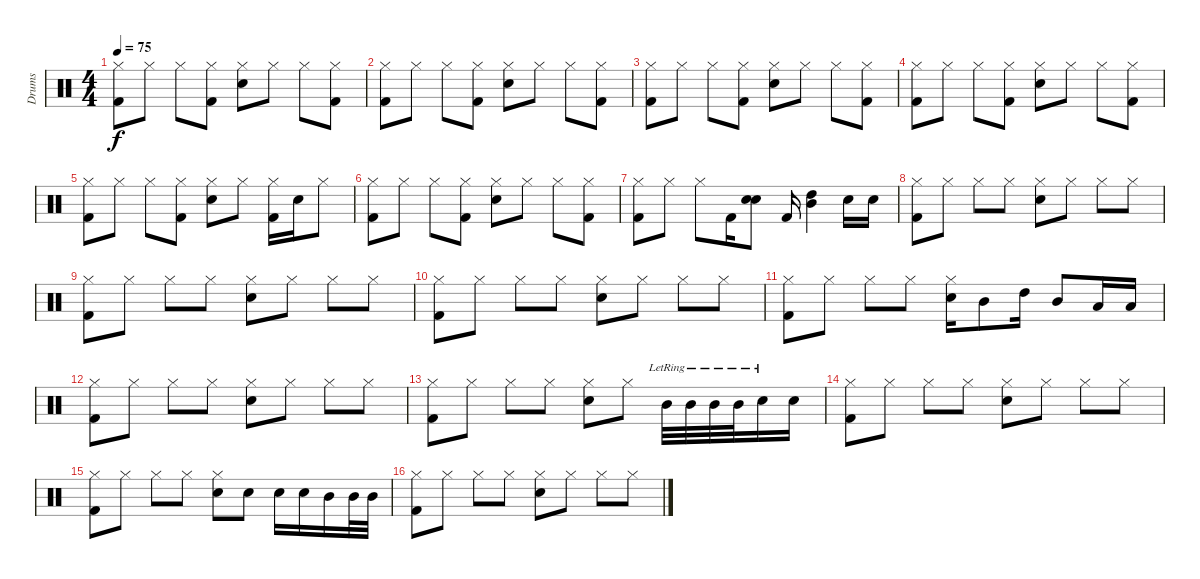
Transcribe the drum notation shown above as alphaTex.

\track ("Drums" "Drums") {instrument percussion}
\staff {score}
\articulation defaults
\ts (4 4)
\tempo 75
\clef neutral
\ks c
("Kick (hit) 2" "Hi-Hat (closed)").8{dy f} "Hi-Hat (closed)".8 "Hi-Hat (closed)".8 ("Kick (hit) 2" "Hi-Hat (closed)").8 ("Snare (hit) 2" "Hi-Hat (closed)").8 "Hi-Hat (closed)".8 "Hi-Hat (closed)".8 ("Kick (hit) 2" "Hi-Hat (closed)").8 |
("Kick (hit) 2" "Hi-Hat (closed)").8 "Hi-Hat (closed)".8 "Hi-Hat (closed)".8 ("Kick (hit) 2" "Hi-Hat (closed)").8 ("Snare (hit) 2" "Hi-Hat (closed)").8 "Hi-Hat (closed)".8 "Hi-Hat (closed)".8 ("Kick (hit) 2" "Hi-Hat (closed)").8 |
("Kick (hit) 2" "Hi-Hat (closed)").8 "Hi-Hat (closed)".8 "Hi-Hat (closed)".8 ("Kick (hit) 2" "Hi-Hat (closed)").8 ("Snare (hit) 2" "Hi-Hat (closed)").8 "Hi-Hat (closed)".8 "Hi-Hat (closed)".8 ("Kick (hit) 2" "Hi-Hat (closed)").8 |
("Kick (hit) 2" "Hi-Hat (closed)").8 "Hi-Hat (closed)".8 "Hi-Hat (closed)".8 ("Kick (hit) 2" "Hi-Hat (closed)").8 ("Snare (hit) 2" "Hi-Hat (closed)").8 "Hi-Hat (closed)".8 "Hi-Hat (closed)".8 ("Kick (hit) 2" "Hi-Hat (closed)").8 |
("Kick (hit) 2" "Hi-Hat (closed)").8 "Hi-Hat (closed)".8 "Hi-Hat (closed)".8 ("Kick (hit) 2" "Hi-Hat (closed)").8 ("Snare (hit) 2" "Hi-Hat (closed)").8 "Hi-Hat (closed)".8 ("Kick (hit) 2" "Hi-Hat (closed)").16 "Snare (hit) 2".16 "Hi-Hat (closed)".8 |
("Kick (hit) 2" "Hi-Hat (closed)").8 "Hi-Hat (closed)".8 "Hi-Hat (closed)".8 ("Kick (hit) 2" "Hi-Hat (closed)").8 ("Snare (hit) 2" "Hi-Hat (closed)").8 "Hi-Hat (closed)".8 "Hi-Hat (closed)".8 ("Kick (hit) 2" "Hi-Hat (closed)").8 |
("Kick (hit) 2" "Hi-Hat (closed)").8 "Hi-Hat (closed)".8 "Hi-Hat (closed)".8 "Kick (hit) 2".16 ("Snare (hit) 2" "Snare (hit) 2").8 "Kick (hit) 2".16 ("Mid Tom (hit)" "High Tom (hit)").4 "Snare (hit) 2".16 "Snare (hit) 2".16 |
("Kick (hit) 2" "Hi-Hat (closed)").8 "Hi-Hat (closed)".8 "Hi-Hat (closed)".8 "Hi-Hat (closed)".8 ("Snare (hit) 2" "Hi-Hat (closed)").8 "Hi-Hat (closed)".8 "Hi-Hat (closed)".8 "Hi-Hat (closed)".8 |
("Kick (hit) 2" "Hi-Hat (closed)").8 "Hi-Hat (closed)".8 "Hi-Hat (closed)".8 "Hi-Hat (closed)".8 ("Snare (hit) 2" "Hi-Hat (closed)").8 "Hi-Hat (closed)".8 "Hi-Hat (closed)".8 "Hi-Hat (closed)".8 |
("Kick (hit) 2" "Hi-Hat (closed)").8 "Hi-Hat (closed)".8 "Hi-Hat (closed)".8 "Hi-Hat (closed)".8 ("Snare (hit) 2" "Hi-Hat (closed)").8 "Hi-Hat (closed)".8 "Hi-Hat (closed)".8 "Hi-Hat (closed)".8 |
("Kick (hit) 2" "Hi-Hat (closed)").8 "Hi-Hat (closed)".8 "Hi-Hat (closed)".8 "Hi-Hat (closed)".8 ("Snare (hit) 2" "Hi-Hat (closed)").16 "Mid Tom (hit)".8 "High Tom (hit)".16 "Mid Tom (hit)".8 "Low Tom (hit)".16 "Low Tom (hit)".16 |
("Kick (hit) 2" "Hi-Hat (closed)").8 "Hi-Hat (closed)".8 "Hi-Hat (closed)".8 "Hi-Hat (closed)".8 ("Snare (hit) 2" "Hi-Hat (closed)").8 "Hi-Hat (closed)".8 "Hi-Hat (closed)".8 "Hi-Hat (closed)".8 |
("Kick (hit) 2" "Hi-Hat (closed)").8 "Hi-Hat (closed)".8 "Hi-Hat (closed)".8 "Hi-Hat (closed)".8 ("Snare (hit) 2" "Hi-Hat (closed)").8 "Hi-Hat (closed)".8 "Mid Tom (hit)"{lr}.32 "Mid Tom (hit)"{lr}.32 "Mid Tom (hit)"{lr}.32 "Mid Tom (hit)"{lr}.32 "Snare (hit) 2"{lr}.16 "Snare (hit) 2".16 |
("Kick (hit) 2" "Hi-Hat (closed)").8 "Hi-Hat (closed)".8 "Hi-Hat (closed)".8 "Hi-Hat (closed)".8 ("Snare (hit) 2" "Hi-Hat (closed)").8 "Hi-Hat (closed)".8 "Hi-Hat (closed)".8 "Hi-Hat (closed)".8 |
("Kick (hit) 2" "Hi-Hat (closed)").8 "Hi-Hat (closed)".8 "Hi-Hat (closed)".8 "Hi-Hat (closed)".8 ("Snare (hit) 2" "Hi-Hat (closed)").8 "Snare (hit) 2".8 "Snare (hit) 2".16 "Snare (hit) 2".16 "Mid Tom (hit)".16 "Mid Tom (hit)".32 "Mid Tom (hit)".32 |
("Kick (hit) 2" "Hi-Hat (closed)").8 "Hi-Hat (closed)".8 "Hi-Hat (closed)".8 "Hi-Hat (closed)".8 ("Snare (hit) 2" "Hi-Hat (closed)").8 "Hi-Hat (closed)".8 "Hi-Hat (closed)".8 "Hi-Hat (closed)".8
